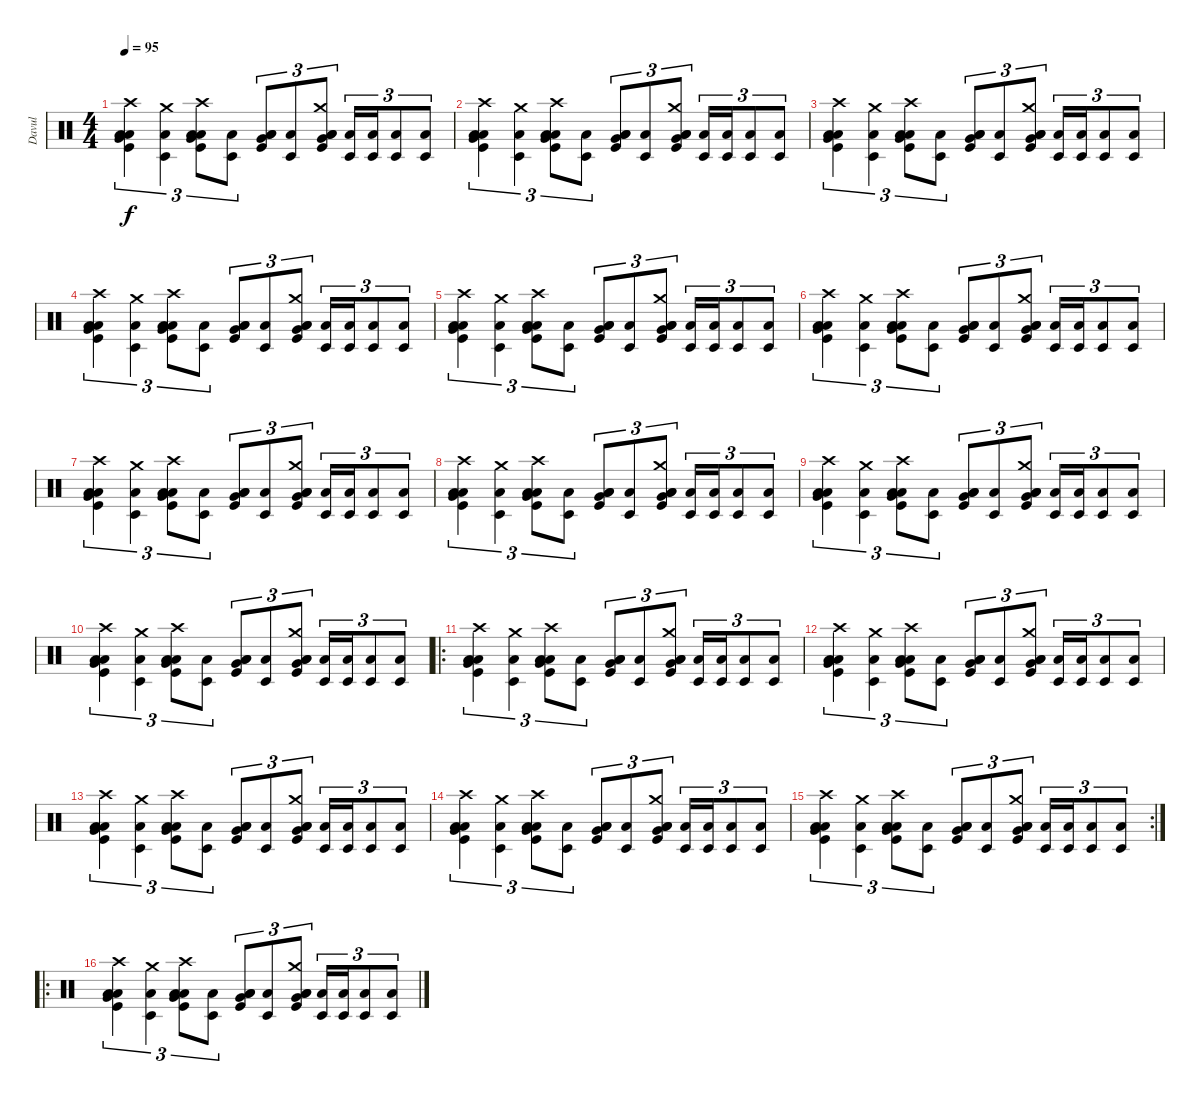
\track ("Davul" "Davul") {instrument percussion}
\staff {score}
\articulation defaults
\ts (4 4)
\tempo 95
\clef neutral
\ks c
("Kick (hit)" "Low Tom (hit)" "Low Floor Tom (hit)" "Very Low Tom (hit)" "Crash high (hit)").4{tu (3 2) dy f} ("Timbale low (hit)" "Low Floor Tom (hit)" "Crash medium (hit)").4{tu (3 2)} ("Kick (hit)" "Low Tom (hit)" "Low Floor Tom (hit)" "Very Low Tom (hit)" "Crash high (hit)").8{tu (3 2)} ("Timbale low (hit)" "Low Floor Tom (hit)").8{tu (3 2)} ("Kick (hit)" "Low Tom (hit)" "Low Floor Tom (hit)" "Very Low Tom (hit)").8{tu (3 2)} ("Timbale low (hit)" "Low Floor Tom (hit)").8{tu (3 2)} ("Kick (hit)" "Low Tom (hit)" "Low Floor Tom (hit)" "Very Low Tom (hit)" "Crash medium (hit)").8{tu (3 2)} ("Timbale low (hit)" "Low Floor Tom (hit)").16{tu (3 2)} ("Timbale low (hit)" "Low Floor Tom (hit)").16{tu (3 2)} ("Timbale low (hit)" "Low Floor Tom (hit)").8{tu (3 2)} ("Timbale low (hit)" "Low Floor Tom (hit)").8{tu (3 2)} |
("Kick (hit)" "Low Tom (hit)" "Low Floor Tom (hit)" "Very Low Tom (hit)" "Crash high (hit)").4{tu (3 2)} ("Timbale low (hit)" "Low Floor Tom (hit)" "Crash medium (hit)").4{tu (3 2)} ("Kick (hit)" "Low Tom (hit)" "Low Floor Tom (hit)" "Very Low Tom (hit)" "Crash high (hit)").8{tu (3 2)} ("Timbale low (hit)" "Low Floor Tom (hit)").8{tu (3 2)} ("Kick (hit)" "Low Tom (hit)" "Low Floor Tom (hit)" "Very Low Tom (hit)").8{tu (3 2)} ("Timbale low (hit)" "Low Floor Tom (hit)").8{tu (3 2)} ("Kick (hit)" "Low Tom (hit)" "Low Floor Tom (hit)" "Very Low Tom (hit)" "Crash medium (hit)").8{tu (3 2)} ("Timbale low (hit)" "Low Floor Tom (hit)").16{tu (3 2)} ("Timbale low (hit)" "Low Floor Tom (hit)").16{tu (3 2)} ("Timbale low (hit)" "Low Floor Tom (hit)").8{tu (3 2)} ("Timbale low (hit)" "Low Floor Tom (hit)").8{tu (3 2)} |
("Kick (hit)" "Low Tom (hit)" "Low Floor Tom (hit)" "Very Low Tom (hit)" "Crash high (hit)").4{tu (3 2)} ("Timbale low (hit)" "Low Floor Tom (hit)" "Crash medium (hit)").4{tu (3 2)} ("Kick (hit)" "Low Tom (hit)" "Low Floor Tom (hit)" "Very Low Tom (hit)" "Crash high (hit)").8{tu (3 2)} ("Timbale low (hit)" "Low Floor Tom (hit)").8{tu (3 2)} ("Kick (hit)" "Low Tom (hit)" "Low Floor Tom (hit)" "Very Low Tom (hit)").8{tu (3 2)} ("Timbale low (hit)" "Low Floor Tom (hit)").8{tu (3 2)} ("Kick (hit)" "Low Tom (hit)" "Low Floor Tom (hit)" "Very Low Tom (hit)" "Crash medium (hit)").8{tu (3 2)} ("Timbale low (hit)" "Low Floor Tom (hit)").16{tu (3 2)} ("Timbale low (hit)" "Low Floor Tom (hit)").16{tu (3 2)} ("Timbale low (hit)" "Low Floor Tom (hit)").8{tu (3 2)} ("Timbale low (hit)" "Low Floor Tom (hit)").8{tu (3 2)} |
("Kick (hit)" "Low Tom (hit)" "Low Floor Tom (hit)" "Very Low Tom (hit)" "Crash high (hit)").4{tu (3 2)} ("Timbale low (hit)" "Low Floor Tom (hit)" "Crash medium (hit)").4{tu (3 2)} ("Kick (hit)" "Low Tom (hit)" "Low Floor Tom (hit)" "Very Low Tom (hit)" "Crash high (hit)").8{tu (3 2)} ("Timbale low (hit)" "Low Floor Tom (hit)").8{tu (3 2)} ("Kick (hit)" "Low Tom (hit)" "Low Floor Tom (hit)" "Very Low Tom (hit)").8{tu (3 2)} ("Timbale low (hit)" "Low Floor Tom (hit)").8{tu (3 2)} ("Kick (hit)" "Low Tom (hit)" "Low Floor Tom (hit)" "Very Low Tom (hit)" "Crash medium (hit)").8{tu (3 2)} ("Timbale low (hit)" "Low Floor Tom (hit)").16{tu (3 2)} ("Timbale low (hit)" "Low Floor Tom (hit)").16{tu (3 2)} ("Timbale low (hit)" "Low Floor Tom (hit)").8{tu (3 2)} ("Timbale low (hit)" "Low Floor Tom (hit)").8{tu (3 2)} |
("Kick (hit)" "Low Tom (hit)" "Low Floor Tom (hit)" "Very Low Tom (hit)" "Crash high (hit)").4{tu (3 2)} ("Timbale low (hit)" "Low Floor Tom (hit)" "Crash medium (hit)").4{tu (3 2)} ("Kick (hit)" "Low Tom (hit)" "Low Floor Tom (hit)" "Very Low Tom (hit)" "Crash high (hit)").8{tu (3 2)} ("Timbale low (hit)" "Low Floor Tom (hit)").8{tu (3 2)} ("Kick (hit)" "Low Tom (hit)" "Low Floor Tom (hit)" "Very Low Tom (hit)").8{tu (3 2)} ("Timbale low (hit)" "Low Floor Tom (hit)").8{tu (3 2)} ("Kick (hit)" "Low Tom (hit)" "Low Floor Tom (hit)" "Very Low Tom (hit)" "Crash medium (hit)").8{tu (3 2)} ("Timbale low (hit)" "Low Floor Tom (hit)").16{tu (3 2)} ("Timbale low (hit)" "Low Floor Tom (hit)").16{tu (3 2)} ("Timbale low (hit)" "Low Floor Tom (hit)").8{tu (3 2)} ("Timbale low (hit)" "Low Floor Tom (hit)").8{tu (3 2)} |
("Kick (hit)" "Low Tom (hit)" "Low Floor Tom (hit)" "Very Low Tom (hit)" "Crash high (hit)").4{tu (3 2)} ("Timbale low (hit)" "Low Floor Tom (hit)" "Crash medium (hit)").4{tu (3 2)} ("Kick (hit)" "Low Tom (hit)" "Low Floor Tom (hit)" "Very Low Tom (hit)" "Crash high (hit)").8{tu (3 2)} ("Timbale low (hit)" "Low Floor Tom (hit)").8{tu (3 2)} ("Kick (hit)" "Low Tom (hit)" "Low Floor Tom (hit)" "Very Low Tom (hit)").8{tu (3 2)} ("Timbale low (hit)" "Low Floor Tom (hit)").8{tu (3 2)} ("Kick (hit)" "Low Tom (hit)" "Low Floor Tom (hit)" "Very Low Tom (hit)" "Crash medium (hit)").8{tu (3 2)} ("Timbale low (hit)" "Low Floor Tom (hit)").16{tu (3 2)} ("Timbale low (hit)" "Low Floor Tom (hit)").16{tu (3 2)} ("Timbale low (hit)" "Low Floor Tom (hit)").8{tu (3 2)} ("Timbale low (hit)" "Low Floor Tom (hit)").8{tu (3 2)} |
("Kick (hit)" "Low Tom (hit)" "Low Floor Tom (hit)" "Very Low Tom (hit)" "Crash high (hit)").4{tu (3 2)} ("Timbale low (hit)" "Low Floor Tom (hit)" "Crash medium (hit)").4{tu (3 2)} ("Kick (hit)" "Low Tom (hit)" "Low Floor Tom (hit)" "Very Low Tom (hit)" "Crash high (hit)").8{tu (3 2)} ("Timbale low (hit)" "Low Floor Tom (hit)").8{tu (3 2)} ("Kick (hit)" "Low Tom (hit)" "Low Floor Tom (hit)" "Very Low Tom (hit)").8{tu (3 2)} ("Timbale low (hit)" "Low Floor Tom (hit)").8{tu (3 2)} ("Kick (hit)" "Low Tom (hit)" "Low Floor Tom (hit)" "Very Low Tom (hit)" "Crash medium (hit)").8{tu (3 2)} ("Timbale low (hit)" "Low Floor Tom (hit)").16{tu (3 2)} ("Timbale low (hit)" "Low Floor Tom (hit)").16{tu (3 2)} ("Timbale low (hit)" "Low Floor Tom (hit)").8{tu (3 2)} ("Timbale low (hit)" "Low Floor Tom (hit)").8{tu (3 2)} |
("Kick (hit)" "Low Tom (hit)" "Low Floor Tom (hit)" "Very Low Tom (hit)" "Crash high (hit)").4{tu (3 2)} ("Timbale low (hit)" "Low Floor Tom (hit)" "Crash medium (hit)").4{tu (3 2)} ("Kick (hit)" "Low Tom (hit)" "Low Floor Tom (hit)" "Very Low Tom (hit)" "Crash high (hit)").8{tu (3 2)} ("Timbale low (hit)" "Low Floor Tom (hit)").8{tu (3 2)} ("Kick (hit)" "Low Tom (hit)" "Low Floor Tom (hit)" "Very Low Tom (hit)").8{tu (3 2)} ("Timbale low (hit)" "Low Floor Tom (hit)").8{tu (3 2)} ("Kick (hit)" "Low Tom (hit)" "Low Floor Tom (hit)" "Very Low Tom (hit)" "Crash medium (hit)").8{tu (3 2)} ("Timbale low (hit)" "Low Floor Tom (hit)").16{tu (3 2)} ("Timbale low (hit)" "Low Floor Tom (hit)").16{tu (3 2)} ("Timbale low (hit)" "Low Floor Tom (hit)").8{tu (3 2)} ("Timbale low (hit)" "Low Floor Tom (hit)").8{tu (3 2)} |
("Kick (hit)" "Low Tom (hit)" "Low Floor Tom (hit)" "Very Low Tom (hit)" "Crash high (hit)").4{tu (3 2)} ("Timbale low (hit)" "Low Floor Tom (hit)" "Crash medium (hit)").4{tu (3 2)} ("Kick (hit)" "Low Tom (hit)" "Low Floor Tom (hit)" "Very Low Tom (hit)" "Crash high (hit)").8{tu (3 2)} ("Timbale low (hit)" "Low Floor Tom (hit)").8{tu (3 2)} ("Kick (hit)" "Low Tom (hit)" "Low Floor Tom (hit)" "Very Low Tom (hit)").8{tu (3 2)} ("Timbale low (hit)" "Low Floor Tom (hit)").8{tu (3 2)} ("Kick (hit)" "Low Tom (hit)" "Low Floor Tom (hit)" "Very Low Tom (hit)" "Crash medium (hit)").8{tu (3 2)} ("Timbale low (hit)" "Low Floor Tom (hit)").16{tu (3 2)} ("Timbale low (hit)" "Low Floor Tom (hit)").16{tu (3 2)} ("Timbale low (hit)" "Low Floor Tom (hit)").8{tu (3 2)} ("Timbale low (hit)" "Low Floor Tom (hit)").8{tu (3 2)} |
("Kick (hit)" "Low Tom (hit)" "Low Floor Tom (hit)" "Very Low Tom (hit)" "Crash high (hit)").4{tu (3 2)} ("Timbale low (hit)" "Low Floor Tom (hit)" "Crash medium (hit)").4{tu (3 2)} ("Kick (hit)" "Low Tom (hit)" "Low Floor Tom (hit)" "Very Low Tom (hit)" "Crash high (hit)").8{tu (3 2)} ("Timbale low (hit)" "Low Floor Tom (hit)").8{tu (3 2)} ("Kick (hit)" "Low Tom (hit)" "Low Floor Tom (hit)" "Very Low Tom (hit)").8{tu (3 2)} ("Timbale low (hit)" "Low Floor Tom (hit)").8{tu (3 2)} ("Kick (hit)" "Low Tom (hit)" "Low Floor Tom (hit)" "Very Low Tom (hit)" "Crash medium (hit)").8{tu (3 2)} ("Timbale low (hit)" "Low Floor Tom (hit)").16{tu (3 2)} ("Timbale low (hit)" "Low Floor Tom (hit)").16{tu (3 2)} ("Timbale low (hit)" "Low Floor Tom (hit)").8{tu (3 2)} ("Timbale low (hit)" "Low Floor Tom (hit)").8{tu (3 2)} |
\ro
("Kick (hit)" "Low Tom (hit)" "Low Floor Tom (hit)" "Very Low Tom (hit)" "Crash high (hit)").4{tu (3 2)} ("Timbale low (hit)" "Low Floor Tom (hit)" "Crash medium (hit)").4{tu (3 2)} ("Kick (hit)" "Low Tom (hit)" "Low Floor Tom (hit)" "Very Low Tom (hit)" "Crash high (hit)").8{tu (3 2)} ("Timbale low (hit)" "Low Floor Tom (hit)").8{tu (3 2)} ("Kick (hit)" "Low Tom (hit)" "Low Floor Tom (hit)" "Very Low Tom (hit)").8{tu (3 2)} ("Timbale low (hit)" "Low Floor Tom (hit)").8{tu (3 2)} ("Kick (hit)" "Low Tom (hit)" "Low Floor Tom (hit)" "Very Low Tom (hit)" "Crash medium (hit)").8{tu (3 2)} ("Timbale low (hit)" "Low Floor Tom (hit)").16{tu (3 2)} ("Timbale low (hit)" "Low Floor Tom (hit)").16{tu (3 2)} ("Timbale low (hit)" "Low Floor Tom (hit)").8{tu (3 2)} ("Timbale low (hit)" "Low Floor Tom (hit)").8{tu (3 2)} |
("Kick (hit)" "Low Tom (hit)" "Low Floor Tom (hit)" "Very Low Tom (hit)" "Crash high (hit)").4{tu (3 2)} ("Timbale low (hit)" "Low Floor Tom (hit)" "Crash medium (hit)").4{tu (3 2)} ("Kick (hit)" "Low Tom (hit)" "Low Floor Tom (hit)" "Very Low Tom (hit)" "Crash high (hit)").8{tu (3 2)} ("Timbale low (hit)" "Low Floor Tom (hit)").8{tu (3 2)} ("Kick (hit)" "Low Tom (hit)" "Low Floor Tom (hit)" "Very Low Tom (hit)").8{tu (3 2)} ("Timbale low (hit)" "Low Floor Tom (hit)").8{tu (3 2)} ("Kick (hit)" "Low Tom (hit)" "Low Floor Tom (hit)" "Very Low Tom (hit)" "Crash medium (hit)").8{tu (3 2)} ("Timbale low (hit)" "Low Floor Tom (hit)").16{tu (3 2)} ("Timbale low (hit)" "Low Floor Tom (hit)").16{tu (3 2)} ("Timbale low (hit)" "Low Floor Tom (hit)").8{tu (3 2)} ("Timbale low (hit)" "Low Floor Tom (hit)").8{tu (3 2)} |
("Kick (hit)" "Low Tom (hit)" "Low Floor Tom (hit)" "Very Low Tom (hit)" "Crash high (hit)").4{tu (3 2)} ("Timbale low (hit)" "Low Floor Tom (hit)" "Crash medium (hit)").4{tu (3 2)} ("Kick (hit)" "Low Tom (hit)" "Low Floor Tom (hit)" "Very Low Tom (hit)" "Crash high (hit)").8{tu (3 2)} ("Timbale low (hit)" "Low Floor Tom (hit)").8{tu (3 2)} ("Kick (hit)" "Low Tom (hit)" "Low Floor Tom (hit)" "Very Low Tom (hit)").8{tu (3 2)} ("Timbale low (hit)" "Low Floor Tom (hit)").8{tu (3 2)} ("Kick (hit)" "Low Tom (hit)" "Low Floor Tom (hit)" "Very Low Tom (hit)" "Crash medium (hit)").8{tu (3 2)} ("Timbale low (hit)" "Low Floor Tom (hit)").16{tu (3 2)} ("Timbale low (hit)" "Low Floor Tom (hit)").16{tu (3 2)} ("Timbale low (hit)" "Low Floor Tom (hit)").8{tu (3 2)} ("Timbale low (hit)" "Low Floor Tom (hit)").8{tu (3 2)} |
("Kick (hit)" "Low Tom (hit)" "Low Floor Tom (hit)" "Very Low Tom (hit)" "Crash high (hit)").4{tu (3 2)} ("Timbale low (hit)" "Low Floor Tom (hit)" "Crash medium (hit)").4{tu (3 2)} ("Kick (hit)" "Low Tom (hit)" "Low Floor Tom (hit)" "Very Low Tom (hit)" "Crash high (hit)").8{tu (3 2)} ("Timbale low (hit)" "Low Floor Tom (hit)").8{tu (3 2)} ("Kick (hit)" "Low Tom (hit)" "Low Floor Tom (hit)" "Very Low Tom (hit)").8{tu (3 2)} ("Timbale low (hit)" "Low Floor Tom (hit)").8{tu (3 2)} ("Kick (hit)" "Low Tom (hit)" "Low Floor Tom (hit)" "Very Low Tom (hit)" "Crash medium (hit)").8{tu (3 2)} ("Timbale low (hit)" "Low Floor Tom (hit)").16{tu (3 2)} ("Timbale low (hit)" "Low Floor Tom (hit)").16{tu (3 2)} ("Timbale low (hit)" "Low Floor Tom (hit)").8{tu (3 2)} ("Timbale low (hit)" "Low Floor Tom (hit)").8{tu (3 2)} |
\rc 2
("Kick (hit)" "Low Tom (hit)" "Low Floor Tom (hit)" "Very Low Tom (hit)" "Crash high (hit)").4{tu (3 2)} ("Timbale low (hit)" "Low Floor Tom (hit)" "Crash medium (hit)").4{tu (3 2)} ("Kick (hit)" "Low Tom (hit)" "Low Floor Tom (hit)" "Very Low Tom (hit)" "Crash high (hit)").8{tu (3 2)} ("Timbale low (hit)" "Low Floor Tom (hit)").8{tu (3 2)} ("Kick (hit)" "Low Tom (hit)" "Low Floor Tom (hit)" "Very Low Tom (hit)").8{tu (3 2)} ("Timbale low (hit)" "Low Floor Tom (hit)").8{tu (3 2)} ("Kick (hit)" "Low Tom (hit)" "Low Floor Tom (hit)" "Very Low Tom (hit)" "Crash medium (hit)").8{tu (3 2)} ("Timbale low (hit)" "Low Floor Tom (hit)").16{tu (3 2)} ("Timbale low (hit)" "Low Floor Tom (hit)").16{tu (3 2)} ("Timbale low (hit)" "Low Floor Tom (hit)").8{tu (3 2)} ("Timbale low (hit)" "Low Floor Tom (hit)").8{tu (3 2)} |
\ro
("Kick (hit)" "Low Tom (hit)" "Low Floor Tom (hit)" "Very Low Tom (hit)" "Crash high (hit)").4{tu (3 2)} ("Timbale low (hit)" "Low Floor Tom (hit)" "Crash medium (hit)").4{tu (3 2)} ("Kick (hit)" "Low Tom (hit)" "Low Floor Tom (hit)" "Very Low Tom (hit)" "Crash high (hit)").8{tu (3 2)} ("Timbale low (hit)" "Low Floor Tom (hit)").8{tu (3 2)} ("Kick (hit)" "Low Tom (hit)" "Low Floor Tom (hit)" "Very Low Tom (hit)").8{tu (3 2)} ("Timbale low (hit)" "Low Floor Tom (hit)").8{tu (3 2)} ("Kick (hit)" "Low Tom (hit)" "Low Floor Tom (hit)" "Very Low Tom (hit)" "Crash medium (hit)").8{tu (3 2)} ("Timbale low (hit)" "Low Floor Tom (hit)").16{tu (3 2)} ("Timbale low (hit)" "Low Floor Tom (hit)").16{tu (3 2)} ("Timbale low (hit)" "Low Floor Tom (hit)").8{tu (3 2)} ("Timbale low (hit)" "Low Floor Tom (hit)").8{tu (3 2)}
